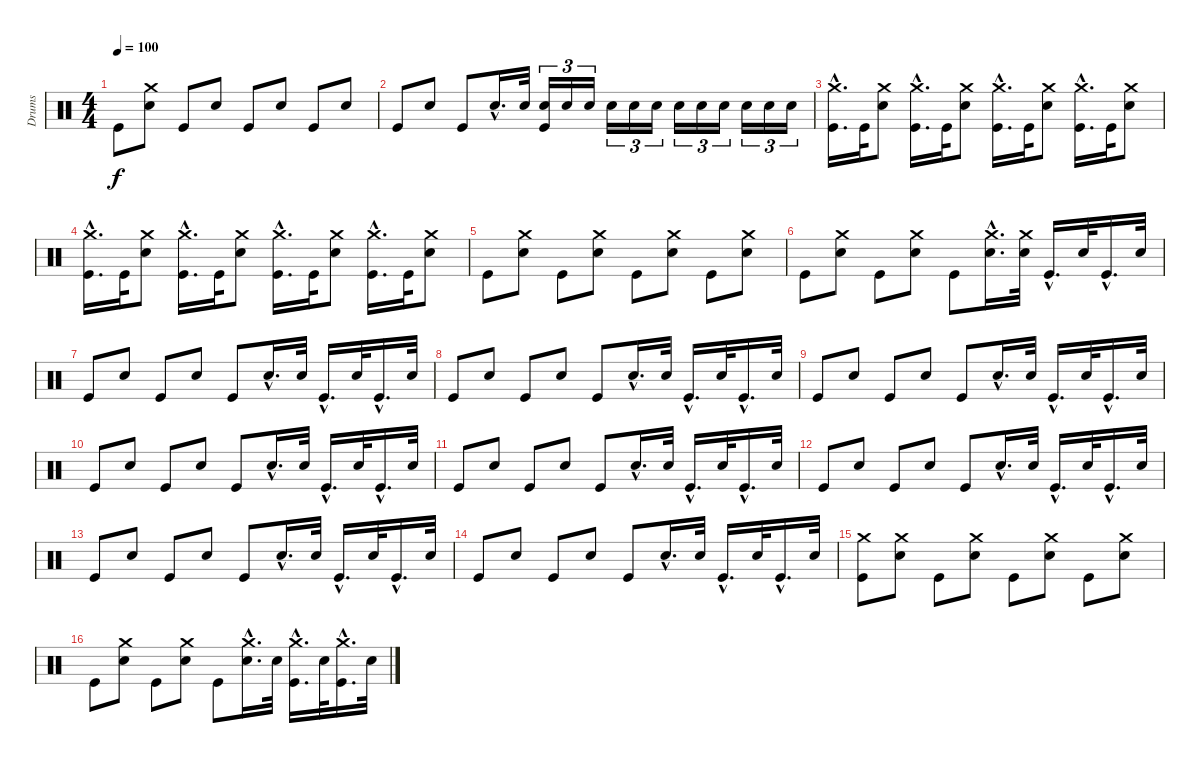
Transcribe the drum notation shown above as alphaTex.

\track ("Drums" "Drums") {instrument percussion}
\staff {score}
\articulation defaults
\ts (4 4)
\tempo 100
\clef neutral
\ks c "Kick (hit)".8{dy f}
("Crash medium (hit)" "Electric Snare (hit)").8 "Kick (hit)".8 "Electric Snare (hit)".8 "Kick (hit)".8 "Electric Snare (hit)".8 "Kick (hit)".8 "Electric Snare (hit)".8 |
"Kick (hit)".8 "Electric Snare (hit)".8 "Kick (hit)".8 "Electric Snare (hit)"{hac}.16{d} "Electric Snare (hit)".32 ("Electric Snare (hit)" "Kick (hit)").16{tu (3 2)} "Electric Snare (hit)".16{tu (3 2)} "Electric Snare (hit)".16{tu (3 2)} "Electric Snare (hit)".16{tu (3 2)} "Electric Snare (hit)".16{tu (3 2)} "Electric Snare (hit)".16{tu (3 2)} "Electric Snare (hit)".16{tu (3 2)} "Electric Snare (hit)".16{tu (3 2)} "Electric Snare (hit)".16{tu (3 2)} "Electric Snare (hit)".16{tu (3 2)} "Electric Snare (hit)".16{tu (3 2)} "Electric Snare (hit)".16{tu (3 2)} |
("Crash medium (hit)"{hac} "Kick (hit)"{hac}).16{d} "Kick (hit)".32 ("Crash medium (hit)" "Electric Snare (hit)").8 ("Crash medium (hit)"{hac} "Kick (hit)"{hac}).16{d} "Kick (hit)".32 ("Crash medium (hit)" "Electric Snare (hit)").8 ("Crash medium (hit)"{hac} "Kick (hit)"{hac}).16{d} "Kick (hit)".32 ("Crash medium (hit)" "Electric Snare (hit)").8 ("Crash medium (hit)"{hac} "Kick (hit)"{hac}).16{d} "Kick (hit)".32 ("Crash medium (hit)" "Electric Snare (hit)").8 |
("Crash medium (hit)"{hac} "Kick (hit)"{hac}).16{d} "Kick (hit)".32 ("Crash medium (hit)" "Electric Snare (hit)").8 ("Crash medium (hit)"{hac} "Kick (hit)"{hac}).16{d} "Kick (hit)".32 ("Crash medium (hit)" "Electric Snare (hit)").8 ("Crash medium (hit)"{hac} "Kick (hit)"{hac}).16{d} "Kick (hit)".32 ("Crash medium (hit)" "Electric Snare (hit)").8 ("Crash medium (hit)"{hac} "Kick (hit)"{hac}).16{d} "Kick (hit)".32 ("Crash medium (hit)" "Electric Snare (hit)").8 |
"Kick (hit)".8 ("Crash medium (hit)" "Electric Snare (hit)").8 "Kick (hit)".8 ("Crash medium (hit)" "Electric Snare (hit)").8 "Kick (hit)".8 ("Crash medium (hit)" "Electric Snare (hit)").8 "Kick (hit)".8 ("Crash medium (hit)" "Electric Snare (hit)").8 |
"Kick (hit)".8 ("Crash medium (hit)" "Electric Snare (hit)").8 "Kick (hit)".8 ("Crash medium (hit)" "Electric Snare (hit)").8 "Kick (hit)".8 ("Crash medium (hit)"{hac} "Electric Snare (hit)"{hac}).16{d} ("Crash medium (hit)" "Electric Snare (hit)").32 "Kick (hit)"{hac}.16{d} "Electric Snare (hit)".32 "Kick (hit)"{hac}.16{d} "Electric Snare (hit)".32 |
"Kick (hit)".8 "Electric Snare (hit)".8 "Kick (hit)".8 "Electric Snare (hit)".8 "Kick (hit)".8 "Electric Snare (hit)"{hac}.16{d} "Electric Snare (hit)".32 "Kick (hit)"{hac}.16{d} "Electric Snare (hit)".32 "Kick (hit)"{hac}.16{d} "Electric Snare (hit)".32 |
"Kick (hit)".8 "Electric Snare (hit)".8 "Kick (hit)".8 "Electric Snare (hit)".8 "Kick (hit)".8 "Electric Snare (hit)"{hac}.16{d} "Electric Snare (hit)".32 "Kick (hit)"{hac}.16{d} "Electric Snare (hit)".32 "Kick (hit)"{hac}.16{d} "Electric Snare (hit)".32 |
"Kick (hit)".8 "Electric Snare (hit)".8 "Kick (hit)".8 "Electric Snare (hit)".8 "Kick (hit)".8 "Electric Snare (hit)"{hac}.16{d} "Electric Snare (hit)".32 "Kick (hit)"{hac}.16{d} "Electric Snare (hit)".32 "Kick (hit)"{hac}.16{d} "Electric Snare (hit)".32 |
"Kick (hit)".8 "Electric Snare (hit)".8 "Kick (hit)".8 "Electric Snare (hit)".8 "Kick (hit)".8 "Electric Snare (hit)"{hac}.16{d} "Electric Snare (hit)".32 "Kick (hit)"{hac}.16{d} "Electric Snare (hit)".32 "Kick (hit)"{hac}.16{d} "Electric Snare (hit)".32 |
"Kick (hit)".8 "Electric Snare (hit)".8 "Kick (hit)".8 "Electric Snare (hit)".8 "Kick (hit)".8 "Electric Snare (hit)"{hac}.16{d} "Electric Snare (hit)".32 "Kick (hit)"{hac}.16{d} "Electric Snare (hit)".32 "Kick (hit)"{hac}.16{d} "Electric Snare (hit)".32 |
"Kick (hit)".8 "Electric Snare (hit)".8 "Kick (hit)".8 "Electric Snare (hit)".8 "Kick (hit)".8 "Electric Snare (hit)"{hac}.16{d} "Electric Snare (hit)".32 "Kick (hit)"{hac}.16{d} "Electric Snare (hit)".32 "Kick (hit)"{hac}.16{d} "Electric Snare (hit)".32 |
"Kick (hit)".8 "Electric Snare (hit)".8 "Kick (hit)".8 "Electric Snare (hit)".8 "Kick (hit)".8 "Electric Snare (hit)"{hac}.16{d} "Electric Snare (hit)".32 "Kick (hit)"{hac}.16{d} "Electric Snare (hit)".32 "Kick (hit)"{hac}.16{d} "Electric Snare (hit)".32 |
"Kick (hit)".8 "Electric Snare (hit)".8 "Kick (hit)".8 "Electric Snare (hit)".8 "Kick (hit)".8 "Electric Snare (hit)"{hac}.16{d} "Electric Snare (hit)".32 "Kick (hit)"{hac}.16{d} "Electric Snare (hit)".32 "Kick (hit)"{hac}.16{d} "Electric Snare (hit)".32 |
("Crash medium (hit)" "Kick (hit)").8 ("Crash medium (hit)" "Electric Snare (hit)").8 "Kick (hit)".8 ("Crash medium (hit)" "Electric Snare (hit)").8 "Kick (hit)".8 ("Crash medium (hit)" "Electric Snare (hit)").8 "Kick (hit)".8 ("Crash medium (hit)" "Electric Snare (hit)").8 |
"Kick (hit)".8 ("Crash medium (hit)" "Electric Snare (hit)").8 "Kick (hit)".8 ("Crash medium (hit)" "Electric Snare (hit)").8 "Kick (hit)".8 ("Crash medium (hit)"{hac} "Electric Snare (hit)"{hac}).16{d} "Electric Snare (hit)".32 ("Crash medium (hit)"{hac} "Kick (hit)"{hac}).16{d} "Electric Snare (hit)".32 ("Crash medium (hit)"{hac} "Kick (hit)"{hac}).16{d} "Electric Snare (hit)".32
